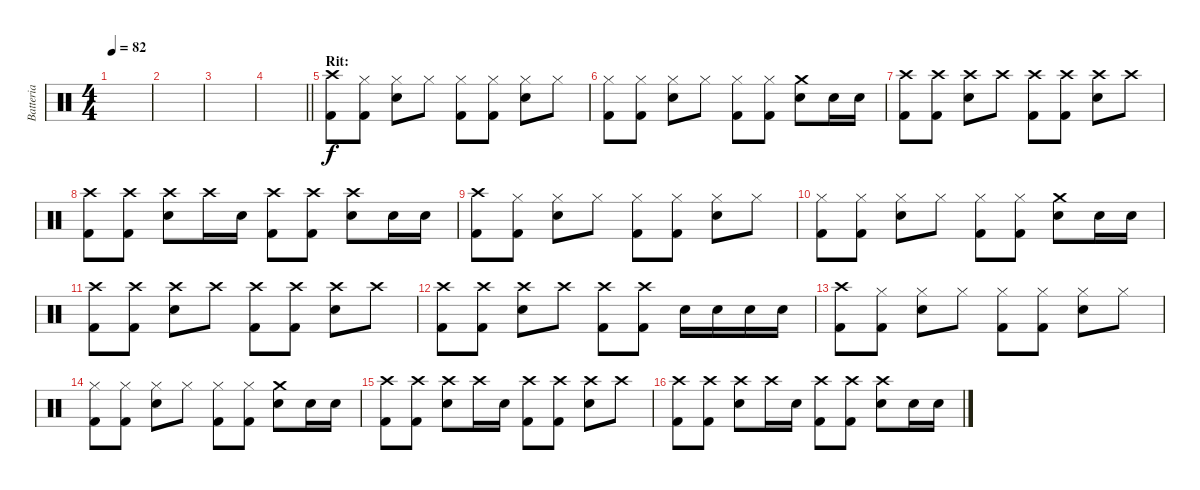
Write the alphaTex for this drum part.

\track ("Batteria" "Batteria") {instrument percussion}
\staff {score}
\articulation defaults
\ts (4 4)
\tempo 82
\clef neutral
\ks c
|
|
|
\barLineRight lightlight
|
\section ("" "Rit:")
("Crash high (hit)" "Kick (hit) 2").8 ("Hi-Hat (closed)" "Kick (hit) 2").8 ("Hi-Hat (closed)" "Snare (hit) 2").8 "Hi-Hat (closed)".8 ("Hi-Hat (closed)" "Kick (hit) 2").8 ("Hi-Hat (closed)" "Kick (hit) 2").8 ("Hi-Hat (closed)" "Snare (hit) 2").8 "Hi-Hat (closed)".8 |
("Hi-Hat (closed)" "Kick (hit) 2").8 ("Hi-Hat (closed)" "Kick (hit) 2").8 ("Hi-Hat (closed)" "Snare (hit) 2").8 "Hi-Hat (closed)".8 ("Hi-Hat (closed)" "Kick (hit) 2").8 ("Hi-Hat (closed)" "Kick (hit) 2").8 ("Crash medium (hit)" "Snare (hit) 2").8 "Snare (hit) 2".16 "Snare (hit) 2".16 |
("Crash high (hit)" "Kick (hit) 2").8 ("Crash high (hit)" "Kick (hit) 2").8 ("Crash high (hit)" "Snare (hit) 2").8 "Crash high (hit)".8 ("Crash high (hit)" "Kick (hit) 2").8 ("Crash high (hit)" "Kick (hit) 2").8 ("Crash high (hit)" "Snare (hit) 2").8 "Crash high (hit)".8 |
("Crash high (hit)" "Kick (hit) 2").8 ("Crash high (hit)" "Kick (hit) 2").8 ("Crash high (hit)" "Snare (hit) 2").8 "Crash high (hit)".16 "Snare (hit) 2".16 ("Crash high (hit)" "Kick (hit) 2").8 ("Crash high (hit)" "Kick (hit) 2").8 ("Crash high (hit)" "Snare (hit) 2").8 "Snare (hit) 2".16 "Snare (hit) 2".16 |
("Crash high (hit)" "Kick (hit) 2").8 ("Hi-Hat (closed)" "Kick (hit) 2").8 ("Hi-Hat (closed)" "Snare (hit) 2").8 "Hi-Hat (closed)".8 ("Hi-Hat (closed)" "Kick (hit) 2").8 ("Hi-Hat (closed)" "Kick (hit) 2").8 ("Hi-Hat (closed)" "Snare (hit) 2").8 "Hi-Hat (closed)".8 |
("Hi-Hat (closed)" "Kick (hit) 2").8 ("Hi-Hat (closed)" "Kick (hit) 2").8 ("Hi-Hat (closed)" "Snare (hit) 2").8 "Hi-Hat (closed)".8 ("Hi-Hat (closed)" "Kick (hit) 2").8 ("Hi-Hat (closed)" "Kick (hit) 2").8 ("Crash medium (hit)" "Snare (hit) 2").8 "Snare (hit) 2".16 "Snare (hit) 2".16 |
("Crash high (hit)" "Kick (hit) 2").8 ("Crash high (hit)" "Kick (hit) 2").8 ("Crash high (hit)" "Snare (hit) 2").8 "Crash high (hit)".8 ("Crash high (hit)" "Kick (hit) 2").8 ("Crash high (hit)" "Kick (hit) 2").8 ("Crash high (hit)" "Snare (hit) 2").8 "Crash high (hit)".8 |
("Crash high (hit)" "Kick (hit) 2").8 ("Crash high (hit)" "Kick (hit) 2").8 ("Crash high (hit)" "Snare (hit) 2").8 "Crash high (hit)".8 ("Crash high (hit)" "Kick (hit) 2").8 ("Crash high (hit)" "Kick (hit) 2").8 "Snare (hit) 2".16 "Snare (hit) 2".16 "Snare (hit) 2".16 "Snare (hit) 2".16 |
("Crash high (hit)" "Kick (hit) 2").8 ("Hi-Hat (closed)" "Kick (hit) 2").8 ("Hi-Hat (closed)" "Snare (hit) 2").8 "Hi-Hat (closed)".8 ("Hi-Hat (closed)" "Kick (hit) 2").8 ("Hi-Hat (closed)" "Kick (hit) 2").8 ("Hi-Hat (closed)" "Snare (hit) 2").8 "Hi-Hat (closed)".8 |
("Hi-Hat (closed)" "Kick (hit) 2").8 ("Hi-Hat (closed)" "Kick (hit) 2").8 ("Hi-Hat (closed)" "Snare (hit) 2").8 "Hi-Hat (closed)".8 ("Hi-Hat (closed)" "Kick (hit) 2").8 ("Hi-Hat (closed)" "Kick (hit) 2").8 ("Crash medium (hit)" "Snare (hit) 2").8 "Snare (hit) 2".16 "Snare (hit) 2".16 |
("Crash high (hit)" "Kick (hit) 2").8 ("Crash high (hit)" "Kick (hit) 2").8 ("Crash high (hit)" "Snare (hit) 2").8 "Crash high (hit)".16 "Snare (hit) 2".16 ("Crash high (hit)" "Kick (hit) 2").8 ("Crash high (hit)" "Kick (hit) 2").8 ("Crash high (hit)" "Snare (hit) 2").8 "Crash high (hit)".8 |
("Crash high (hit)" "Kick (hit) 2").8 ("Crash high (hit)" "Kick (hit) 2").8 ("Crash high (hit)" "Snare (hit) 2").8 "Crash high (hit)".16 "Snare (hit) 2".16 ("Crash high (hit)" "Kick (hit) 2").8 ("Crash high (hit)" "Kick (hit) 2").8 ("Crash high (hit)" "Snare (hit) 2").8 "Snare (hit) 2".16 "Snare (hit) 2".16
